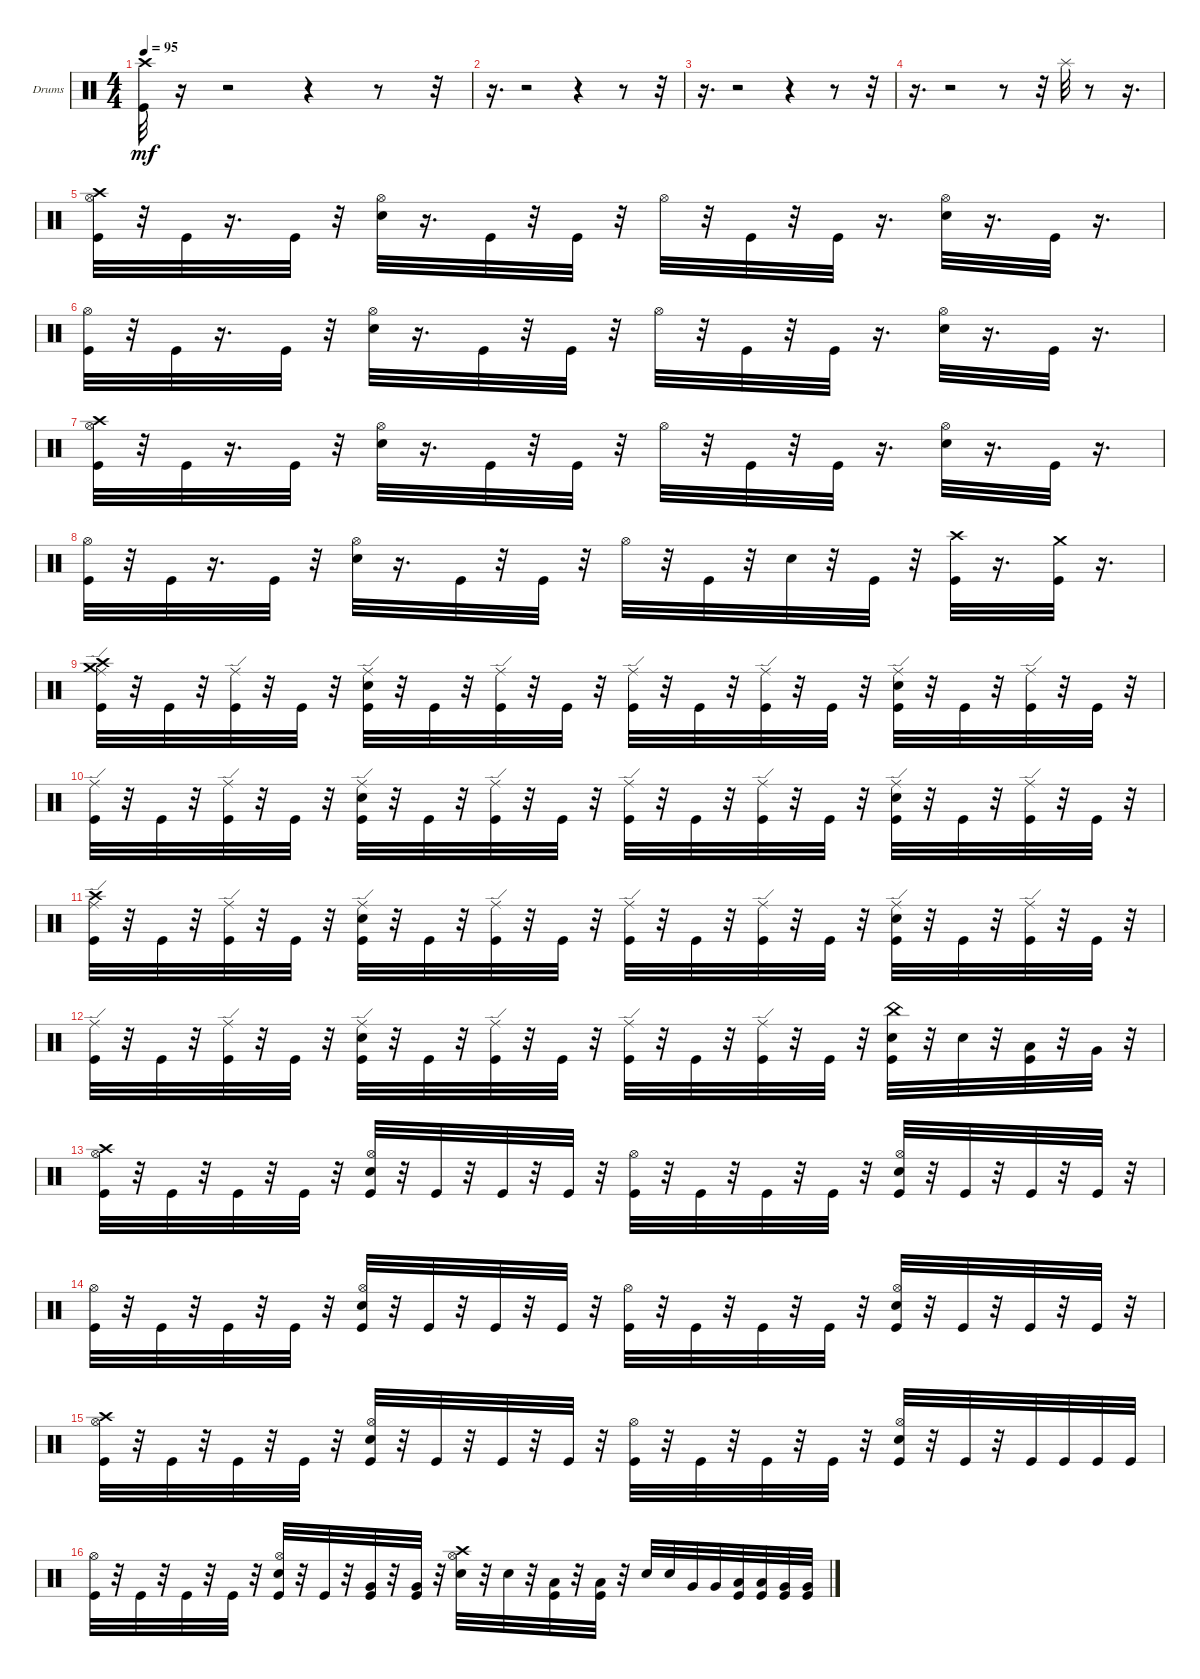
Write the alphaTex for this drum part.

\bracketExtendMode groupsimilarinstruments
\firstSystemTrackNameOrientation horizontal
\otherSystemsTrackNameOrientation horizontal
\track ("Drums" "Drums") {instrument percussion}
\staff {score}
\articulation defaults
\ts (4 4)
\tempo 95
\clef neutral
\ks c
("Kick (hit)" "Crash high (hit)").32{dy mf} r.16 r.2 r.4 r.8 r.32 |
r.16{d} r.2 r.4 r.8 r.32 |
r.16{d} r.2 r.4 r.8 r.32 |
r.16{d} r.2 r.8 r.32 "Splash (hit)".32 r.8 r.16{d} |
("Kick (hit)" "Hi-Hat (open)" "Crash high (hit)").32 r.32 "Kick (hit)".32 r.16{d} "Kick (hit)".32 r.32 ("Snare (hit) 2" "Hi-Hat (open)").32 r.16{d} "Kick (hit)".32 r.32 "Kick (hit)".32 r.32 "Hi-Hat (open)".32 r.32 "Kick (hit)".32 r.32 "Kick (hit)".32 r.16{d} ("Snare (hit) 2" "Hi-Hat (open)").32 r.16{d} "Kick (hit)".32 r.16{d} |
("Kick (hit)" "Hi-Hat (open)").32 r.32 "Kick (hit)".32 r.16{d} "Kick (hit)".32 r.32 ("Snare (hit) 2" "Hi-Hat (open)").32 r.16{d} "Kick (hit)".32 r.32 "Kick (hit)".32 r.32 "Hi-Hat (open)".32 r.32 "Kick (hit)".32 r.32 "Kick (hit)".32 r.16{d} ("Snare (hit) 2" "Hi-Hat (open)").32 r.16{d} "Kick (hit)".32 r.16{d} |
("Kick (hit)" "Hi-Hat (open)" "Crash high (hit)").32 r.32 "Kick (hit)".32 r.16{d} "Kick (hit)".32 r.32 ("Snare (hit) 2" "Hi-Hat (open)").32 r.16{d} "Kick (hit)".32 r.32 "Kick (hit)".32 r.32 "Hi-Hat (open)".32 r.32 "Kick (hit)".32 r.32 "Kick (hit)".32 r.16{d} ("Snare (hit) 2" "Hi-Hat (open)").32 r.16{d} "Kick (hit)".32 r.16{d} |
("Kick (hit)" "Hi-Hat (open)").32 r.32 "Kick (hit)".32 r.16{d} "Kick (hit)".32 r.32 ("Snare (hit) 2" "Hi-Hat (open)").32 r.16{d} "Kick (hit)".32 r.32 "Kick (hit)".32 r.32 "Hi-Hat (open)".32 r.32 "Kick (hit)".32 r.32 "Snare (hit) 2".32 r.32 "Kick (hit)".32 r.32 ("Kick (hit)" "Crash high (hit)").32 r.16{d} ("Kick (hit)" "Crash medium (hit)").32 r.16{d} |
("Ride (edge)" "Kick (hit)" "Crash high (hit)" "Crash medium (hit)").32 r.32 "Kick (hit)".32 r.32 ("Ride (edge)" "Kick (hit)").32 r.32 "Kick (hit)".32 r.32 ("Ride (edge)" "Snare (hit) 2" "Kick (hit)").32 r.32 "Kick (hit)".32 r.32 ("Ride (edge)" "Kick (hit)").32 r.32 "Kick (hit)".32 r.32 ("Ride (edge)" "Kick (hit)").32 r.32 "Kick (hit)".32 r.32 ("Ride (edge)" "Kick (hit)").32 r.32 "Kick (hit)".32 r.32 ("Ride (edge)" "Snare (hit) 2" "Kick (hit)").32 r.32 "Kick (hit)".32 r.32 ("Ride (edge)" "Kick (hit)").32 r.32 "Kick (hit)".32 r.32 |
("Ride (edge)" "Kick (hit)").32 r.32 "Kick (hit)".32 r.32 ("Ride (edge)" "Kick (hit)").32 r.32 "Kick (hit)".32 r.32 ("Ride (edge)" "Snare (hit) 2" "Kick (hit)").32 r.32 "Kick (hit)".32 r.32 ("Ride (edge)" "Kick (hit)").32 r.32 "Kick (hit)".32 r.32 ("Ride (edge)" "Kick (hit)").32 r.32 "Kick (hit)".32 r.32 ("Ride (edge)" "Kick (hit)").32 r.32 "Kick (hit)".32 r.32 ("Ride (edge)" "Snare (hit) 2" "Kick (hit)").32 r.32 "Kick (hit)".32 r.32 ("Ride (edge)" "Kick (hit)").32 r.32 "Kick (hit)".32 r.32 |
("Ride (edge)" "Crash high (hit)" "Kick (hit)").32 r.32 "Kick (hit)".32 r.32 ("Ride (edge)" "Kick (hit)").32 r.32 "Kick (hit)".32 r.32 ("Ride (edge)" "Snare (hit) 2" "Kick (hit)").32 r.32 "Kick (hit)".32 r.32 ("Ride (edge)" "Kick (hit)").32 r.32 "Kick (hit)".32 r.32 ("Ride (edge)" "Kick (hit)").32 r.32 "Kick (hit)".32 r.32 ("Ride (edge)" "Kick (hit)").32 r.32 "Kick (hit)".32 r.32 ("Ride (edge)" "Snare (hit) 2" "Kick (hit)").32 r.32 "Kick (hit)".32 r.32 ("Ride (edge)" "Kick (hit)").32 r.32 "Kick (hit)".32 r.32 |
("Ride (edge)" "Kick (hit)").32 r.32 "Kick (hit)".32 r.32 ("Ride (edge)" "Kick (hit)").32 r.32 "Kick (hit)".32 r.32 ("Ride (edge)" "Snare (hit) 2" "Kick (hit)").32 r.32 "Kick (hit)".32 r.32 ("Ride (edge)" "Kick (hit)").32 r.32 "Kick (hit)".32 r.32 ("Ride (edge)" "Kick (hit)").32 r.32 "Kick (hit)".32 r.32 ("Ride (edge)" "Kick (hit)").32 r.32 "Kick (hit)".32 r.32 ("Kick (hit)" "Snare (hit) 2" "China (hit)").32 r.32 "Snare (hit) 2".32 r.32 ("Kick (hit)" "Low Tom (hit)").32 r.32 "Very Low Tom (hit)".32 r.32 |
("Kick (hit)" "Hi-Hat (open)" "Crash high (hit)").32 r.32 "Kick (hit)".32 r.32 "Kick (hit)".32 r.32 "Kick (hit)".32 r.32 ("Kick (hit)" "Snare (hit) 2" "Hi-Hat (open)").32 r.32 "Kick (hit)".32 r.32 "Kick (hit)".32 r.32 "Kick (hit)".32 r.32 ("Kick (hit)" "Hi-Hat (open)").32 r.32 "Kick (hit)".32 r.32 "Kick (hit)".32 r.32 "Kick (hit)".32 r.32 ("Kick (hit)" "Snare (hit) 2" "Hi-Hat (open)").32 r.32 "Kick (hit)".32 r.32 "Kick (hit)".32 r.32 "Kick (hit)".32 r.32 |
("Kick (hit)" "Hi-Hat (open)").32 r.32 "Kick (hit)".32 r.32 "Kick (hit)".32 r.32 "Kick (hit)".32 r.32 ("Kick (hit)" "Snare (hit) 2" "Hi-Hat (open)").32 r.32 "Kick (hit)".32 r.32 "Kick (hit)".32 r.32 "Kick (hit)".32 r.32 ("Kick (hit)" "Hi-Hat (open)").32 r.32 "Kick (hit)".32 r.32 "Kick (hit)".32 r.32 "Kick (hit)".32 r.32 ("Kick (hit)" "Snare (hit) 2" "Hi-Hat (open)").32 r.32 "Kick (hit)".32 r.32 "Kick (hit)".32 r.32 "Kick (hit)".32 r.32 |
("Kick (hit)" "Hi-Hat (open)" "Crash high (hit)").32 r.32 "Kick (hit)".32 r.32 "Kick (hit)".32 r.32 "Kick (hit)".32 r.32 ("Kick (hit)" "Snare (hit) 2" "Hi-Hat (open)").32 r.32 "Kick (hit)".32 r.32 "Kick (hit)".32 r.32 "Kick (hit)".32 r.32 ("Kick (hit)" "Hi-Hat (open)").32 r.32 "Kick (hit)".32 r.32 "Kick (hit)".32 r.32 "Kick (hit)".32 r.32 ("Kick (hit)" "Snare (hit) 2" "Hi-Hat (open)").32 r.32 "Kick (hit)".32 r.32 "Kick (hit)".32 "Kick (hit)".32 "Kick (hit)".32 "Kick (hit)".32 |
("Kick (hit)" "Hi-Hat (open)").32 r.32 "Kick (hit)".32 r.32 "Kick (hit)".32 r.32 "Kick (hit)".32 r.32 ("Kick (hit)" "Snare (hit) 2" "Hi-Hat (open)").32 r.32 "Kick (hit)".32 r.32 ("Kick (hit)" "Very Low Tom (hit)").32 r.32 ("Kick (hit)" "Very Low Tom (hit)").32 r.32 ("Snare (hit) 2" "Hi-Hat (open)" "Crash high (hit)").32 r.32 "Snare (hit) 2".32 r.32 ("Kick (hit)" "Low Tom (hit)").32 r.32 ("Kick (hit)" "Low Tom (hit)").32 r.32 "Snare (hit) 2".32 "Snare (hit) 2".32 "Very Low Tom (hit)".32 "Very Low Tom (hit)".32 ("Kick (hit)" "Low Tom (hit)").32 ("Kick (hit)" "Low Tom (hit)").32 ("Kick (hit)" "Very Low Tom (hit)").32 ("Kick (hit)" "Very Low Tom (hit)").32
